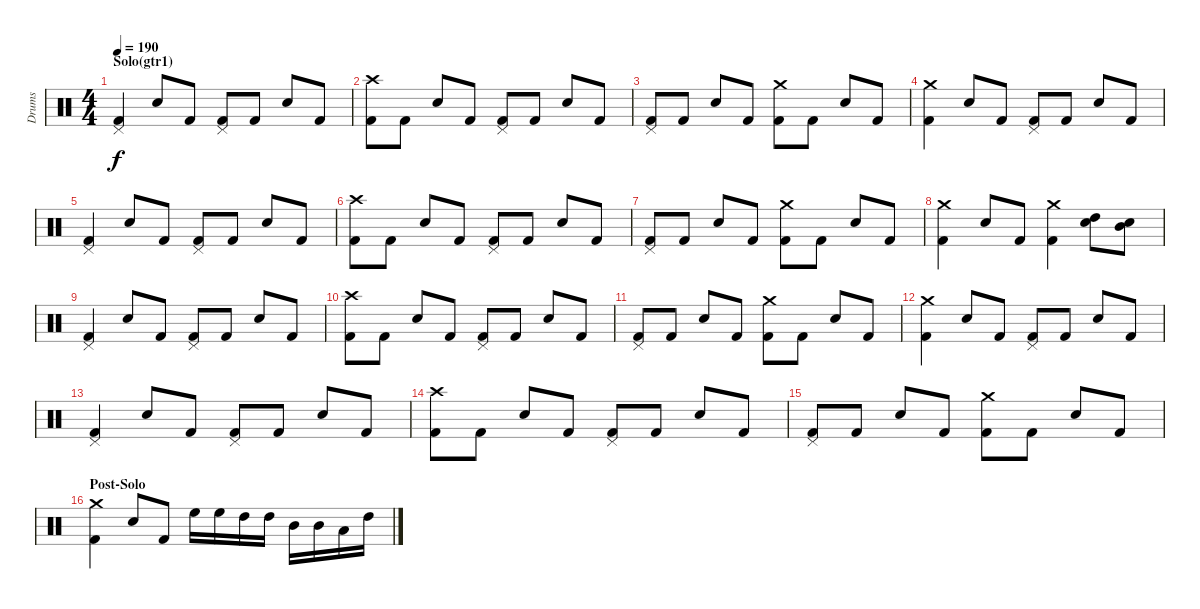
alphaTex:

\track ("Drums" "Drums") {instrument percussion}
\staff {score}
\articulation defaults
\ts (4 4)
\section ("" "Solo(gtr1)")
\tempo 190
\clef neutral
\ks c
("Pedal Hi-Hat (hit)" "Kick (hit) 2").4{dy f} "Electric Snare (hit)".8 "Kick (hit) 2".8 ("Pedal Hi-Hat (hit)" "Kick (hit) 2").8 "Kick (hit) 2".8 "Electric Snare (hit)".8 "Kick (hit) 2".8 |
("Crash high (hit)" "Kick (hit) 2").8 "Kick (hit) 2".8 "Electric Snare (hit)".8 "Kick (hit) 2".8 ("Pedal Hi-Hat (hit)" "Kick (hit) 2").8 "Kick (hit) 2".8 "Electric Snare (hit)".8 "Kick (hit) 2".8 |
("Pedal Hi-Hat (hit)" "Kick (hit) 2").8 "Kick (hit) 2".8 "Electric Snare (hit)".8 "Kick (hit) 2".8 ("Crash medium (hit)" "Kick (hit) 2").8 "Kick (hit) 2".8 "Electric Snare (hit)".8 "Kick (hit) 2".8 |
("Crash medium (hit)" "Kick (hit) 2").4 "Electric Snare (hit)".8 "Kick (hit) 2".8 ("Pedal Hi-Hat (hit)" "Kick (hit) 2").8 "Kick (hit) 2".8 "Electric Snare (hit)".8 "Kick (hit) 2".8 |
("Pedal Hi-Hat (hit)" "Kick (hit) 2").4 "Electric Snare (hit)".8 "Kick (hit) 2".8 ("Pedal Hi-Hat (hit)" "Kick (hit) 2").8 "Kick (hit) 2".8 "Electric Snare (hit)".8 "Kick (hit) 2".8 |
("Crash high (hit)" "Kick (hit) 2").8 "Kick (hit) 2".8 "Electric Snare (hit)".8 "Kick (hit) 2".8 ("Pedal Hi-Hat (hit)" "Kick (hit) 2").8 "Kick (hit) 2".8 "Electric Snare (hit)".8 "Kick (hit) 2".8 |
("Pedal Hi-Hat (hit)" "Kick (hit) 2").8 "Kick (hit) 2".8 "Electric Snare (hit)".8 "Kick (hit) 2".8 ("Crash medium (hit)" "Kick (hit) 2").8 "Kick (hit) 2".8 "Electric Snare (hit)".8 "Kick (hit) 2".8 |
("Crash medium (hit)" "Kick (hit) 2").4 "Electric Snare (hit)".8 "Kick (hit) 2".8 ("Crash medium (hit)" "Kick (hit) 2").4 ("Electric Snare (hit)" "High Tom (hit)").8 ("Electric Snare (hit)" "Mid Tom (hit)").8 |
("Pedal Hi-Hat (hit)" "Kick (hit) 2").4 "Electric Snare (hit)".8 "Kick (hit) 2".8 ("Pedal Hi-Hat (hit)" "Kick (hit) 2").8 "Kick (hit) 2".8 "Electric Snare (hit)".8 "Kick (hit) 2".8 |
("Crash high (hit)" "Kick (hit) 2").8 "Kick (hit) 2".8 "Electric Snare (hit)".8 "Kick (hit) 2".8 ("Pedal Hi-Hat (hit)" "Kick (hit) 2").8 "Kick (hit) 2".8 "Electric Snare (hit)".8 "Kick (hit) 2".8 |
("Pedal Hi-Hat (hit)" "Kick (hit) 2").8 "Kick (hit) 2".8 "Electric Snare (hit)".8 "Kick (hit) 2".8 ("Crash medium (hit)" "Kick (hit) 2").8 "Kick (hit) 2".8 "Electric Snare (hit)".8 "Kick (hit) 2".8 |
("Crash medium (hit)" "Kick (hit) 2").4 "Electric Snare (hit)".8 "Kick (hit) 2".8 ("Pedal Hi-Hat (hit)" "Kick (hit) 2").8 "Kick (hit) 2".8 "Electric Snare (hit)".8 "Kick (hit) 2".8 |
("Pedal Hi-Hat (hit)" "Kick (hit) 2").4 "Electric Snare (hit)".8 "Kick (hit) 2".8 ("Pedal Hi-Hat (hit)" "Kick (hit) 2").8 "Kick (hit) 2".8 "Electric Snare (hit)".8 "Kick (hit) 2".8 |
("Crash high (hit)" "Kick (hit) 2").8 "Kick (hit) 2".8 "Electric Snare (hit)".8 "Kick (hit) 2".8 ("Pedal Hi-Hat (hit)" "Kick (hit) 2").8 "Kick (hit) 2".8 "Electric Snare (hit)".8 "Kick (hit) 2".8 |
("Pedal Hi-Hat (hit)" "Kick (hit) 2").8 "Kick (hit) 2".8 "Electric Snare (hit)".8 "Kick (hit) 2".8 ("Crash medium (hit)" "Kick (hit) 2").8 "Kick (hit) 2".8 "Electric Snare (hit)".8 "Kick (hit) 2".8 |
\section ("" "Post-Solo")
("Crash medium (hit)" "Kick (hit) 2").4 "Electric Snare (hit)".8 "Kick (hit) 2".8 "High Floor Tom (hit)".16 "High Floor Tom (hit)".16 "High Tom (hit)".16 "High Tom (hit)".16 "Mid Tom (hit)".16 "Mid Tom (hit)".16 "Low Tom (hit)".16 "High Tom (hit)".16
